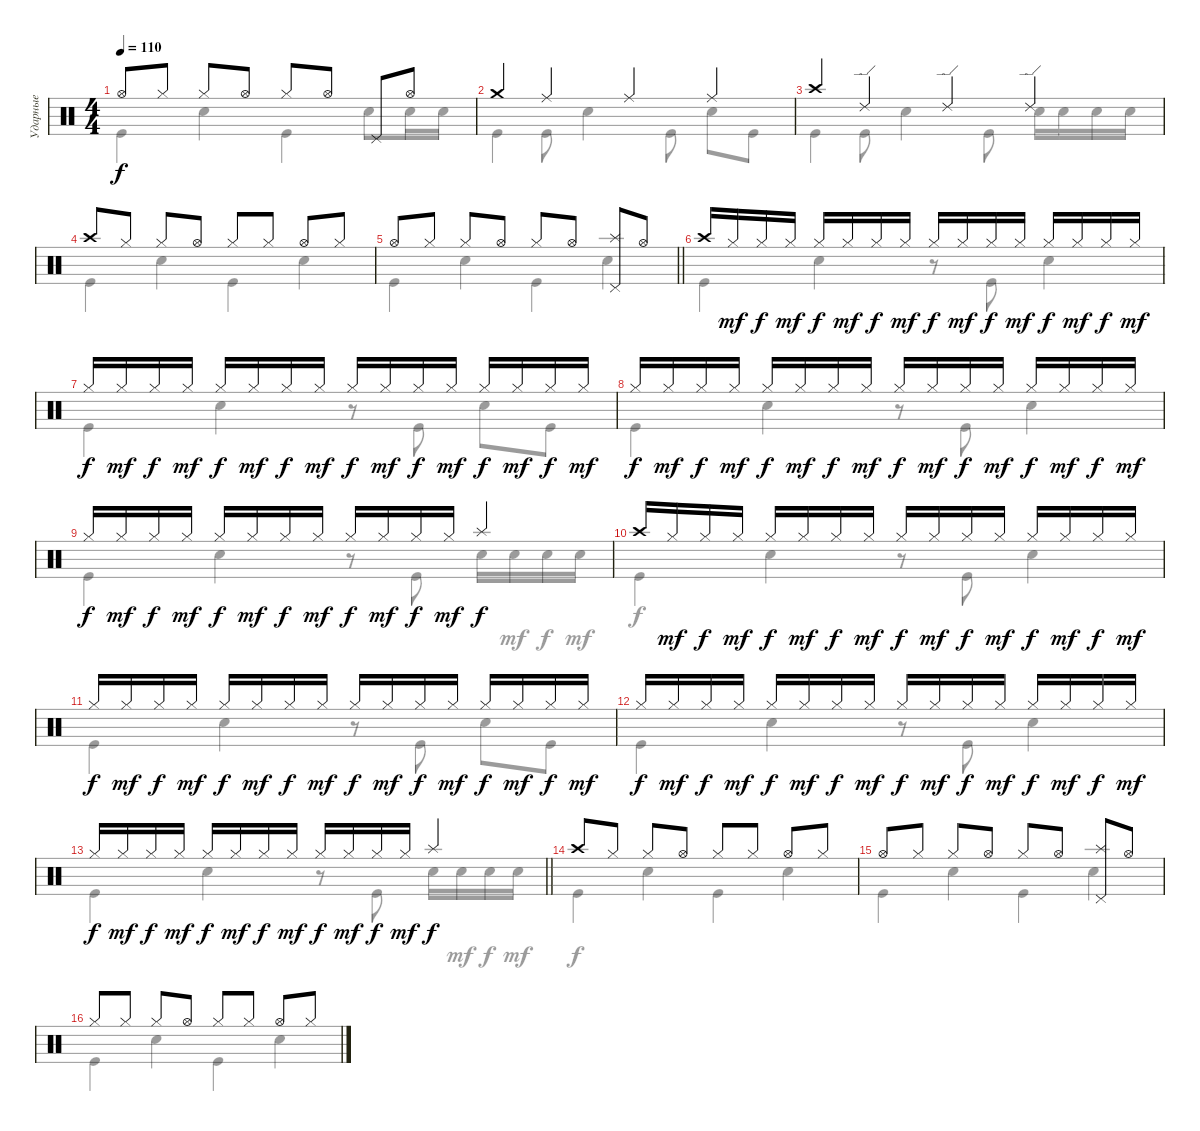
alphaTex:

\track ("Ударные" "Ударные") {instrument percussion}
\staff {score}
\articulation defaults
\voice
\ts (4 4)
\tempo 110
\clef neutral
\ks c "Hi-Hat (open)".8{dy f} "Hi-Hat (closed)".8 "Hi-Hat (closed)".8 "Hi-Hat (open)".8 "Hi-Hat (closed)".8 "Hi-Hat (open)".8 "Pedal Hi-Hat (hit)".8 "Hi-Hat (open)".8
|
"Crash medium (hit)".4 "Ride (middle)".4 "Ride (middle)".4 "Ride (middle)".4 |
"Crash high (hit)".4 "Ride (edge) 2".4 "Ride (edge) 2".4 "Ride (edge) 2".4 |
"Crash high (hit)".8 "Hi-Hat (closed)".8 "Hi-Hat (closed)".8 "Hi-Hat (open)".8 "Hi-Hat (closed)".8 "Hi-Hat (closed)".8 "Hi-Hat (open)".8 "Hi-Hat (closed)".8 |
\barLineRight lightlight "Hi-Hat (open)".8 "Hi-Hat (closed)".8 "Hi-Hat (closed)".8 "Hi-Hat (open)".8 "Hi-Hat (closed)".8 "Hi-Hat (open)".8
("Pedal Hi-Hat (hit)" "Splash (hit)").8 "Hi-Hat (open)".8 |
"Crash high (hit)".16 "Hi-Hat (closed)".16{dy mf} "Hi-Hat (closed)".16{dy f} "Hi-Hat (closed)".16{dy mf} "Hi-Hat (closed)".16{dy f} "Hi-Hat (closed)".16{dy mf} "Hi-Hat (closed)".16{dy f} "Hi-Hat (closed)".16{dy mf} "Hi-Hat (closed)".16{dy f} "Hi-Hat (closed)".16{dy mf} "Hi-Hat (closed)".16{dy f} "Hi-Hat (closed)".16{dy mf} "Hi-Hat (closed)".16{dy f} "Hi-Hat (closed)".16{dy mf} "Hi-Hat (closed)".16{dy f} "Hi-Hat (closed)".16{dy mf} |
"Hi-Hat (closed)".16{dy f} "Hi-Hat (closed)".16{dy mf} "Hi-Hat (closed)".16{dy f} "Hi-Hat (closed)".16{dy mf} "Hi-Hat (closed)".16{dy f} "Hi-Hat (closed)".16{dy mf} "Hi-Hat (closed)".16{dy f} "Hi-Hat (closed)".16{dy mf} "Hi-Hat (closed)".16{dy f} "Hi-Hat (closed)".16{dy mf} "Hi-Hat (closed)".16{dy f} "Hi-Hat (closed)".16{dy mf} "Hi-Hat (closed)".16{dy f} "Hi-Hat (closed)".16{dy mf} "Hi-Hat (closed)".16{dy f} "Hi-Hat (closed)".16{dy mf} |
"Hi-Hat (closed)".16{dy f} "Hi-Hat (closed)".16{dy mf} "Hi-Hat (closed)".16{dy f} "Hi-Hat (closed)".16{dy mf} "Hi-Hat (closed)".16{dy f} "Hi-Hat (closed)".16{dy mf} "Hi-Hat (closed)".16{dy f} "Hi-Hat (closed)".16{dy mf} "Hi-Hat (closed)".16{dy f} "Hi-Hat (closed)".16{dy mf} "Hi-Hat (closed)".16{dy f} "Hi-Hat (closed)".16{dy mf} "Hi-Hat (closed)".16{dy f} "Hi-Hat (closed)".16{dy mf} "Hi-Hat (closed)".16{dy f} "Hi-Hat (closed)".16{dy mf} |
"Hi-Hat (closed)".16{dy f} "Hi-Hat (closed)".16{dy mf} "Hi-Hat (closed)".16{dy f} "Hi-Hat (closed)".16{dy mf} "Hi-Hat (closed)".16{dy f} "Hi-Hat (closed)".16{dy mf} "Hi-Hat (closed)".16{dy f} "Hi-Hat (closed)".16{dy mf} "Hi-Hat (closed)".16{dy f} "Hi-Hat (closed)".16{dy mf} "Hi-Hat (closed)".16{dy f} "Hi-Hat (closed)".16{dy mf} "Splash (hit)".4{dy f} |
"Crash high (hit)".16 "Hi-Hat (closed)".16{dy mf} "Hi-Hat (closed)".16{dy f} "Hi-Hat (closed)".16{dy mf} "Hi-Hat (closed)".16{dy f} "Hi-Hat (closed)".16{dy mf} "Hi-Hat (closed)".16{dy f} "Hi-Hat (closed)".16{dy mf} "Hi-Hat (closed)".16{dy f} "Hi-Hat (closed)".16{dy mf} "Hi-Hat (closed)".16{dy f} "Hi-Hat (closed)".16{dy mf} "Hi-Hat (closed)".16{dy f} "Hi-Hat (closed)".16{dy mf} "Hi-Hat (closed)".16{dy f} "Hi-Hat (closed)".16{dy mf} |
"Hi-Hat (closed)".16{dy f} "Hi-Hat (closed)".16{dy mf} "Hi-Hat (closed)".16{dy f} "Hi-Hat (closed)".16{dy mf} "Hi-Hat (closed)".16{dy f} "Hi-Hat (closed)".16{dy mf} "Hi-Hat (closed)".16{dy f} "Hi-Hat (closed)".16{dy mf} "Hi-Hat (closed)".16{dy f} "Hi-Hat (closed)".16{dy mf} "Hi-Hat (closed)".16{dy f} "Hi-Hat (closed)".16{dy mf} "Hi-Hat (closed)".16{dy f} "Hi-Hat (closed)".16{dy mf} "Hi-Hat (closed)".16{dy f} "Hi-Hat (closed)".16{dy mf} |
"Hi-Hat (closed)".16{dy f} "Hi-Hat (closed)".16{dy mf} "Hi-Hat (closed)".16{dy f} "Hi-Hat (closed)".16{dy mf} "Hi-Hat (closed)".16{dy f} "Hi-Hat (closed)".16{dy mf} "Hi-Hat (closed)".16{dy f} "Hi-Hat (closed)".16{dy mf} "Hi-Hat (closed)".16{dy f} "Hi-Hat (closed)".16{dy mf} "Hi-Hat (closed)".16{dy f} "Hi-Hat (closed)".16{dy mf} "Hi-Hat (closed)".16{dy f} "Hi-Hat (closed)".16{dy mf} "Hi-Hat (closed)".16{dy f} "Hi-Hat (closed)".16{dy mf} |
\barLineRight lightlight "Hi-Hat (closed)".16{dy f} "Hi-Hat (closed)".16{dy mf} "Hi-Hat (closed)".16{dy f} "Hi-Hat (closed)".16{dy mf} "Hi-Hat (closed)".16{dy f} "Hi-Hat (closed)".16{dy mf} "Hi-Hat (closed)".16{dy f} "Hi-Hat (closed)".16{dy mf} "Hi-Hat (closed)".16{dy f} "Hi-Hat (closed)".16{dy mf} "Hi-Hat (closed)".16{dy f} "Hi-Hat (closed)".16{dy mf} "Splash (hit)".4{dy f}
|
"Crash high (hit)".8 "Hi-Hat (closed)".8 "Hi-Hat (closed)".8 "Hi-Hat (open)".8 "Hi-Hat (closed)".8 "Hi-Hat (closed)".8 "Hi-Hat (open)".8 "Hi-Hat (closed)".8 |
"Hi-Hat (open)".8 "Hi-Hat (closed)".8 "Hi-Hat (closed)".8 "Hi-Hat (open)".8 "Hi-Hat (closed)".8 "Hi-Hat (open)".8 ("Pedal Hi-Hat (hit)" "Splash (hit)").8 "Hi-Hat (open)".8 |
"Hi-Hat (closed)".8 "Hi-Hat (closed)".8 "Hi-Hat (closed)".8 "Hi-Hat (open)".8 "Hi-Hat (closed)".8 "Hi-Hat (closed)".8 "Hi-Hat (open)".8 "Hi-Hat (closed)".8
\voice
\clef neutral
\ottava regular
\simile none
\ks c "Kick (hit)".4{dy f} "Snare (hit) 2".4 "Kick (hit)".4 "Snare (hit) 2".8 "Snare (hit) 2".16 "Snare (hit) 2".16
|
"Kick (hit)".4 "Kick (hit)".8 "Snare (hit) 2".4 "Kick (hit)".8 "Snare (hit) 2".8 "Kick (hit)".8 |
"Kick (hit)".4 "Kick (hit)".8 "Snare (hit) 2".4 "Kick (hit)".8 "Snare (hit) 2".16 "Snare (hit) 2".16 "Snare (hit) 2".16 "Snare (hit) 2".16 |
"Kick (hit)".4 "Snare (hit) 2".4 "Kick (hit)".4 "Snare (hit) 2".4 |
\barLineRight lightlight "Kick (hit)".4 "Snare (hit) 2".4 "Kick (hit)".4 "Snare (hit) 2".4
|
"Kick (hit)".4 "Snare (hit) 2".4 r.8 "Kick (hit)".8 "Snare (hit) 2".4 |
"Kick (hit)".4 "Snare (hit) 2".4 r.8 "Kick (hit)".8 "Snare (hit) 2".8 "Kick (hit)".8 |
"Kick (hit)".4 "Snare (hit) 2".4 r.8 "Kick (hit)".8 "Snare (hit) 2".4 |
"Kick (hit)".4 "Snare (hit) 2".4 r.8 "Kick (hit)".8 "Snare (hit) 2".16 "Snare (hit) 2".16{dy mf} "Snare (hit) 2".16{dy f} "Snare (hit) 2".16{dy mf} |
"Kick (hit)".4{dy f} "Snare (hit) 2".4 r.8 "Kick (hit)".8 "Snare (hit) 2".4 |
"Kick (hit)".4 "Snare (hit) 2".4 r.8 "Kick (hit)".8 "Snare (hit) 2".8 "Kick (hit)".8 |
"Kick (hit)".4 "Snare (hit) 2".4 r.8 "Kick (hit)".8 "Snare (hit) 2".4 |
\barLineRight lightlight "Kick (hit)".4 "Snare (hit) 2".4
r.8 "Kick (hit)".8 "Snare (hit) 2".16 "Snare (hit) 2".16{dy mf} "Snare (hit) 2".16{dy f} "Snare (hit) 2".16{dy mf} |
"Kick (hit)".4{dy f} "Snare (hit) 2".4 "Kick (hit)".4 "Snare (hit) 2".4 |
"Kick (hit)".4 "Snare (hit) 2".4 "Kick (hit)".4 "Snare (hit) 2".4 |
"Kick (hit)".4 "Snare (hit) 2".4 "Kick (hit)".4 "Snare (hit) 2".4
